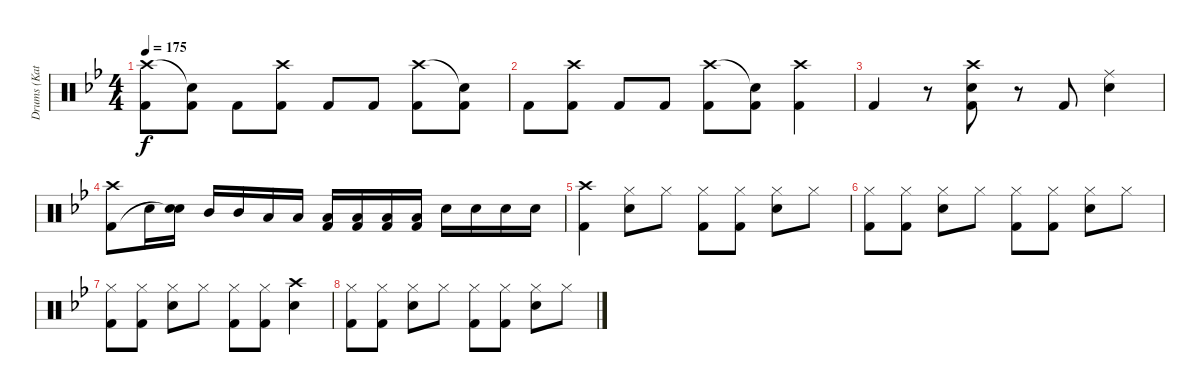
\track ("Drums (Katsuji)" "Drums (Kat") {instrument percussion}
\staff {score}
\articulation defaults
\ts (4 4)
\tempo 175
\clef neutral
\ks bb
("Crash high (hit)" "Kick (hit) 2").8{dy f} ("Snare (hit)"{t} "Kick (hit) 2").8 "Kick (hit) 2".8 ("Crash high (hit)" "Kick (hit) 2").8 "Kick (hit) 2".8 "Kick (hit) 2".8 ("Crash high (hit)" "Kick (hit) 2").8 ("Snare (hit)"{t} "Kick (hit) 2").8 |
"Kick (hit) 2".8 ("Crash high (hit)" "Kick (hit) 2").8 "Kick (hit) 2".8 "Kick (hit) 2".8 ("Crash high (hit)" "Kick (hit) 2").8 ("Snare (hit)"{t} "Kick (hit) 2").8 ("Crash high (hit)" "Kick (hit) 2").4 |
"Kick (hit) 2".4 r.8 ("Crash high (hit)" "Snare (hit) 2" "Kick (hit) 2").8 r.8 "Kick (hit) 2".8 ("Ride (middle)" "Snare (hit) 2").4 |
("Crash high (hit)" "Kick (hit) 2").8 "Snare (hit) 2".16 ("Snare (hit) 2" "Snare (hit)"{t}).16 "Mid Tom (hit)".16 "Mid Tom (hit)".16 "Low Tom (hit)".16 "Low Tom (hit)".16 ("Low Tom (hit)" "Kick (hit) 2").16 ("Low Tom (hit)" "Kick (hit) 2").16 ("Low Tom (hit)" "Kick (hit) 2").16 ("Low Tom (hit)" "Kick (hit) 2").16 "Snare (hit) 2".16 "Snare (hit) 2".16 "Snare (hit) 2".16 "Snare (hit) 2".16 |
("Crash high (hit)" "Kick (hit) 2").4 ("Hi-Hat (closed)" "Snare (hit) 2").8 "Hi-Hat (closed)".8 ("Hi-Hat (closed)" "Kick (hit) 2").8 ("Hi-Hat (closed)" "Kick (hit) 2").8 ("Hi-Hat (closed)" "Snare (hit) 2").8 "Hi-Hat (closed)".8 |
("Hi-Hat (closed)" "Kick (hit) 2").8 ("Hi-Hat (closed)" "Kick (hit) 2").8 ("Hi-Hat (closed)" "Snare (hit) 2").8 "Hi-Hat (closed)".8 ("Hi-Hat (closed)" "Kick (hit) 2").8 ("Hi-Hat (closed)" "Kick (hit) 2").8 ("Hi-Hat (closed)" "Snare (hit) 2").8 "Hi-Hat (closed)".8 |
("Hi-Hat (closed)" "Kick (hit) 2").8 ("Hi-Hat (closed)" "Kick (hit) 2").8 ("Hi-Hat (closed)" "Snare (hit) 2").8 "Hi-Hat (closed)".8 ("Hi-Hat (closed)" "Kick (hit) 2").8 ("Hi-Hat (closed)" "Kick (hit) 2").8 ("Crash high (hit)" "Snare (hit) 2").4 |
("Hi-Hat (closed)" "Kick (hit) 2").8 ("Hi-Hat (closed)" "Kick (hit) 2").8 ("Hi-Hat (closed)" "Snare (hit) 2").8 "Hi-Hat (closed)".8 ("Hi-Hat (closed)" "Kick (hit) 2").8 ("Hi-Hat (closed)" "Kick (hit) 2").8 ("Hi-Hat (closed)" "Snare (hit) 2").8 "Hi-Hat (closed)".8
